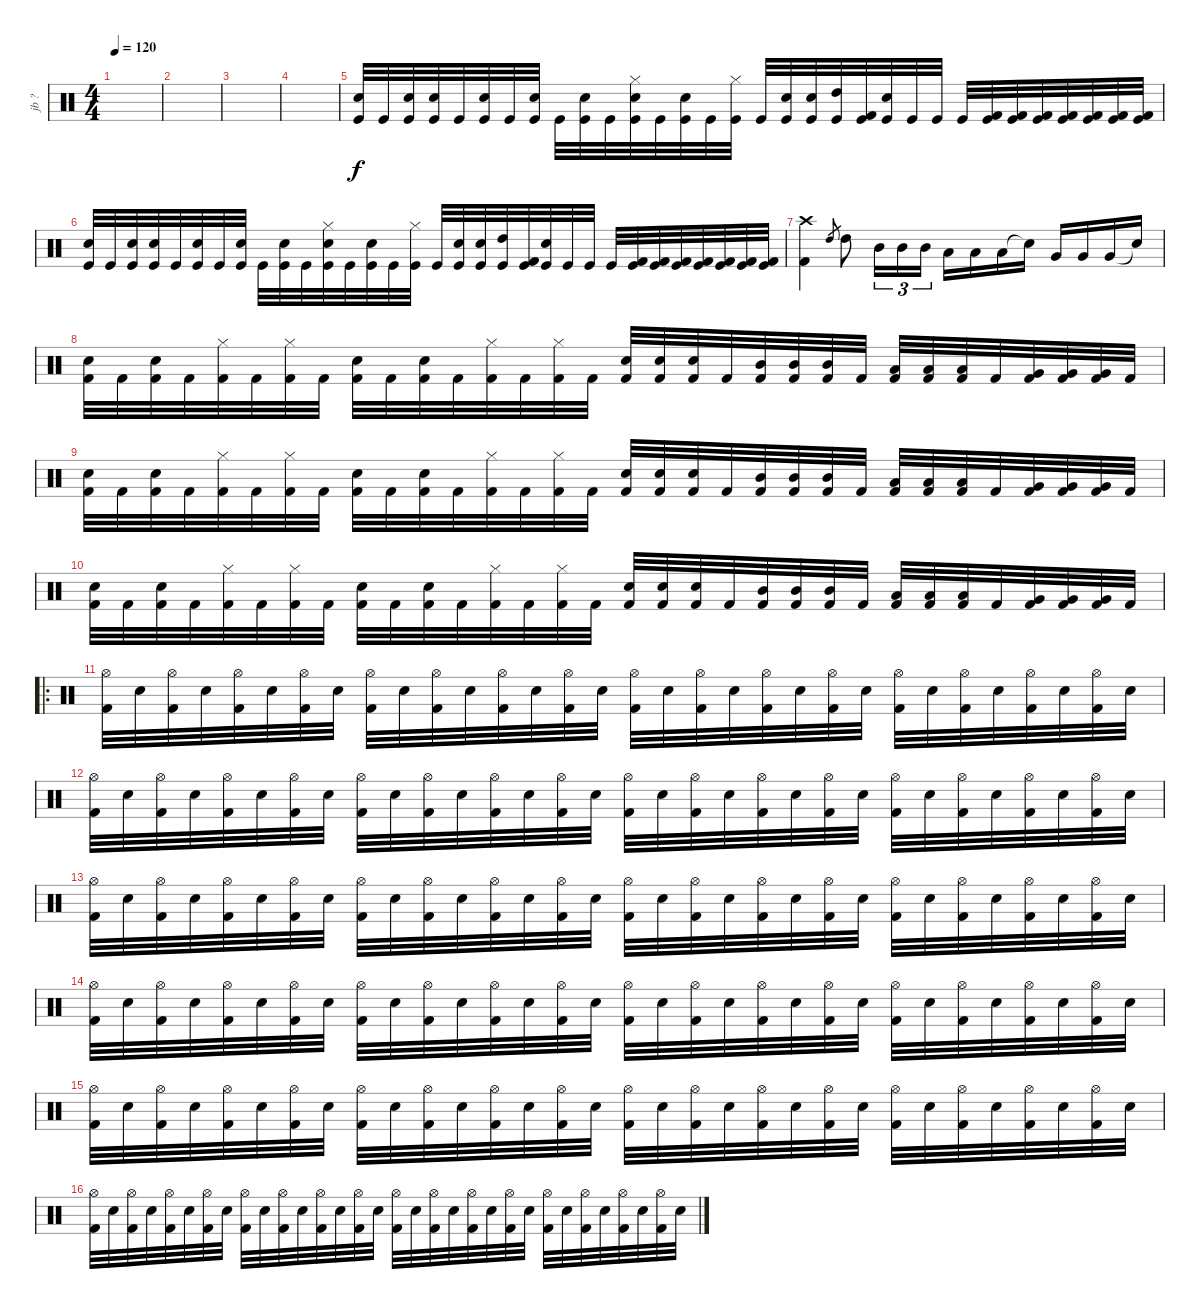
\track ("jb ?" "jb ?") {instrument percussion}
\staff {score}
\articulation defaults
\ts (4 4)
\tempo 120
\clef neutral
\ks c
|
|
|
|
("Electric Snare (hit)" "Kick (hit)").32 "Kick (hit)".32 ("Snare (hit) 2" "Kick (hit)").32 ("Snare (hit) 2" "Kick (hit)").32 "Kick (hit)".32 ("Electric Snare (hit)" "Kick (hit)").32 "Kick (hit)".32 ("Snare (hit) 2" "Kick (hit)").32 "Kick (hit)".32 ("Electric Snare (hit)" "Kick (hit)").32 "Kick (hit)".32 ("Snare (hit) 2" "Hi-Hat (closed)" "Kick (hit)").32 "Kick (hit)".32 ("Electric Snare (hit)" "Kick (hit)").32 "Kick (hit)".32 ("Hi-Hat (closed)" "Kick (hit)").32 "Kick (hit)".32 ("Electric Snare (hit)" "Kick (hit)").32 ("Electric Snare (hit)" "Kick (hit)").32 ("High Tom (hit)" "Kick (hit)").32 ("Kick (hit) 2" "Kick (hit)").32 ("Electric Snare (hit)" "Kick (hit)").32 "Kick (hit)".32 "Kick (hit)".32 "Kick (hit)".32 ("Kick (hit) 2" "Kick (hit)").32 ("Kick (hit) 2" "Kick (hit)").32 ("Kick (hit) 2" "Kick (hit)").32 ("Kick (hit) 2" "Kick (hit)").32 ("Kick (hit) 2" "Kick (hit)").32 ("Kick (hit) 2" "Kick (hit)").32 ("Kick (hit) 2" "Kick (hit)").32 |
("Electric Snare (hit)" "Kick (hit)").32 "Kick (hit)".32 ("Snare (hit) 2" "Kick (hit)").32 ("Snare (hit) 2" "Kick (hit)").32 "Kick (hit)".32 ("Electric Snare (hit)" "Kick (hit)").32 "Kick (hit)".32 ("Snare (hit) 2" "Kick (hit)").32 "Kick (hit)".32 ("Electric Snare (hit)" "Kick (hit)").32 "Kick (hit)".32 ("Snare (hit) 2" "Hi-Hat (closed)" "Kick (hit)").32 "Kick (hit)".32 ("Electric Snare (hit)" "Kick (hit)").32 "Kick (hit)".32 ("Hi-Hat (closed)" "Kick (hit)").32 "Kick (hit)".32 ("Electric Snare (hit)" "Kick (hit)").32 ("Electric Snare (hit)" "Kick (hit)").32 ("High Tom (hit)" "Kick (hit)").32 ("Kick (hit) 2" "Kick (hit)").32 ("Electric Snare (hit)" "Kick (hit)").32 "Kick (hit)".32 "Kick (hit)".32 "Kick (hit)".32 ("Kick (hit) 2" "Kick (hit)").32 ("Kick (hit) 2" "Kick (hit)").32 ("Kick (hit) 2" "Kick (hit)").32 ("Kick (hit) 2" "Kick (hit)").32 ("Kick (hit) 2" "Kick (hit)").32 ("Kick (hit) 2" "Kick (hit)").32 ("Kick (hit) 2" "Kick (hit)").32 |
("Crash high (hit)" "Kick (hit) 2").4 "High Tom (hit)".8{gr} "High Tom (hit)".8 "Mid Tom (hit)".16{tu (3 2)} "Mid Tom (hit)".16{tu (3 2)} "Mid Tom (hit)".16{tu (3 2)} "Low Tom (hit)".16 "Low Tom (hit)".16 "Low Tom (hit)".16 "Snare (hit)"{t}.16 "Very Low Tom (hit)".16 "Very Low Tom (hit)".16 "Very Low Tom (hit)".16 "Snare (hit)"{t}.16 |
("Snare (hit) 2" "Kick (hit) 2").32 "Kick (hit) 2".32 ("Snare (hit) 2" "Kick (hit) 2").32 "Kick (hit) 2".32 ("Hi-Hat (closed)" "Kick (hit) 2").32 "Kick (hit) 2".32 ("Hi-Hat (closed)" "Kick (hit) 2").32 "Kick (hit) 2".32 ("Snare (hit) 2" "Kick (hit) 2").32 "Kick (hit) 2".32 ("Snare (hit) 2" "Kick (hit) 2").32 "Kick (hit) 2".32 ("Hi-Hat (closed)" "Kick (hit) 2").32 "Kick (hit) 2".32 ("Hi-Hat (closed)" "Kick (hit) 2").32 "Kick (hit) 2".32 ("Snare (hit) 2" "Kick (hit) 2").32 ("Snare (hit) 2" "Kick (hit) 2").32 ("Snare (hit) 2" "Kick (hit) 2").32 "Kick (hit) 2".32 ("Mid Tom (hit)" "Kick (hit) 2").32 ("Mid Tom (hit)" "Kick (hit) 2").32 ("Mid Tom (hit)" "Kick (hit) 2").32 "Kick (hit) 2".32 ("Low Tom (hit)" "Kick (hit) 2").32 ("Low Tom (hit)" "Kick (hit) 2").32 ("Low Tom (hit)" "Kick (hit) 2").32 "Kick (hit) 2".32 ("Very Low Tom (hit)" "Kick (hit) 2").32 ("Very Low Tom (hit)" "Kick (hit) 2").32 ("Very Low Tom (hit)" "Kick (hit) 2").32 "Kick (hit) 2".32 |
("Snare (hit) 2" "Kick (hit) 2").32 "Kick (hit) 2".32 ("Snare (hit) 2" "Kick (hit) 2").32 "Kick (hit) 2".32 ("Hi-Hat (closed)" "Kick (hit) 2").32 "Kick (hit) 2".32 ("Hi-Hat (closed)" "Kick (hit) 2").32 "Kick (hit) 2".32 ("Snare (hit) 2" "Kick (hit) 2").32 "Kick (hit) 2".32 ("Snare (hit) 2" "Kick (hit) 2").32 "Kick (hit) 2".32 ("Hi-Hat (closed)" "Kick (hit) 2").32 "Kick (hit) 2".32 ("Hi-Hat (closed)" "Kick (hit) 2").32 "Kick (hit) 2".32 ("Snare (hit) 2" "Kick (hit) 2").32 ("Snare (hit) 2" "Kick (hit) 2").32 ("Snare (hit) 2" "Kick (hit) 2").32 "Kick (hit) 2".32 ("Mid Tom (hit)" "Kick (hit) 2").32 ("Mid Tom (hit)" "Kick (hit) 2").32 ("Mid Tom (hit)" "Kick (hit) 2").32 "Kick (hit) 2".32 ("Low Tom (hit)" "Kick (hit) 2").32 ("Low Tom (hit)" "Kick (hit) 2").32 ("Low Tom (hit)" "Kick (hit) 2").32 "Kick (hit) 2".32 ("Very Low Tom (hit)" "Kick (hit) 2").32 ("Very Low Tom (hit)" "Kick (hit) 2").32 ("Very Low Tom (hit)" "Kick (hit) 2").32 "Kick (hit) 2".32 |
("Snare (hit) 2" "Kick (hit) 2").32 "Kick (hit) 2".32 ("Snare (hit) 2" "Kick (hit) 2").32 "Kick (hit) 2".32 ("Hi-Hat (closed)" "Kick (hit) 2").32 "Kick (hit) 2".32 ("Hi-Hat (closed)" "Kick (hit) 2").32 "Kick (hit) 2".32 ("Snare (hit) 2" "Kick (hit) 2").32 "Kick (hit) 2".32 ("Snare (hit) 2" "Kick (hit) 2").32 "Kick (hit) 2".32 ("Hi-Hat (closed)" "Kick (hit) 2").32 "Kick (hit) 2".32 ("Hi-Hat (closed)" "Kick (hit) 2").32 "Kick (hit) 2".32 ("Snare (hit) 2" "Kick (hit) 2").32 ("Snare (hit) 2" "Kick (hit) 2").32 ("Snare (hit) 2" "Kick (hit) 2").32 "Kick (hit) 2".32 ("Mid Tom (hit)" "Kick (hit) 2").32 ("Mid Tom (hit)" "Kick (hit) 2").32 ("Mid Tom (hit)" "Kick (hit) 2").32 "Kick (hit) 2".32 ("Low Tom (hit)" "Kick (hit) 2").32 ("Low Tom (hit)" "Kick (hit) 2").32 ("Low Tom (hit)" "Kick (hit) 2").32 "Kick (hit) 2".32 ("Very Low Tom (hit)" "Kick (hit) 2").32 ("Very Low Tom (hit)" "Kick (hit) 2").32 ("Very Low Tom (hit)" "Kick (hit) 2").32 "Kick (hit) 2".32 |
\ro
("Kick (hit) 2" "Hi-Hat (open)").32 "Electric Snare (hit)".32 ("Kick (hit) 2" "Hi-Hat (open)").32 "Electric Snare (hit)".32 ("Kick (hit) 2" "Hi-Hat (open)").32 "Electric Snare (hit)".32 ("Kick (hit) 2" "Hi-Hat (open)").32 "Electric Snare (hit)".32 ("Kick (hit) 2" "Hi-Hat (open)").32 "Electric Snare (hit)".32 ("Kick (hit) 2" "Hi-Hat (open)").32 "Electric Snare (hit)".32 ("Kick (hit) 2" "Hi-Hat (open)").32 "Electric Snare (hit)".32 ("Kick (hit) 2" "Hi-Hat (open)").32 "Electric Snare (hit)".32 ("Kick (hit) 2" "Hi-Hat (open)").32 "Electric Snare (hit)".32 ("Kick (hit) 2" "Hi-Hat (open)").32 "Electric Snare (hit)".32 ("Kick (hit) 2" "Hi-Hat (open)").32 "Electric Snare (hit)".32 ("Kick (hit) 2" "Hi-Hat (open)").32 "Electric Snare (hit)".32 ("Kick (hit) 2" "Hi-Hat (open)").32 "Electric Snare (hit)".32 ("Kick (hit) 2" "Hi-Hat (open)").32 "Electric Snare (hit)".32 ("Kick (hit) 2" "Hi-Hat (open)").32 "Electric Snare (hit)".32 ("Kick (hit) 2" "Hi-Hat (open)").32 "Electric Snare (hit)".32 |
("Kick (hit) 2" "Hi-Hat (open)").32 "Electric Snare (hit)".32 ("Kick (hit) 2" "Hi-Hat (open)").32 "Electric Snare (hit)".32 ("Kick (hit) 2" "Hi-Hat (open)").32 "Electric Snare (hit)".32 ("Kick (hit) 2" "Hi-Hat (open)").32 "Electric Snare (hit)".32 ("Kick (hit) 2" "Hi-Hat (open)").32 "Electric Snare (hit)".32 ("Kick (hit) 2" "Hi-Hat (open)").32 "Electric Snare (hit)".32 ("Kick (hit) 2" "Hi-Hat (open)").32 "Electric Snare (hit)".32 ("Kick (hit) 2" "Hi-Hat (open)").32 "Electric Snare (hit)".32 ("Kick (hit) 2" "Hi-Hat (open)").32 "Electric Snare (hit)".32 ("Kick (hit) 2" "Hi-Hat (open)").32 "Electric Snare (hit)".32 ("Kick (hit) 2" "Hi-Hat (open)").32 "Electric Snare (hit)".32 ("Kick (hit) 2" "Hi-Hat (open)").32 "Electric Snare (hit)".32 ("Kick (hit) 2" "Hi-Hat (open)").32 "Electric Snare (hit)".32 ("Kick (hit) 2" "Hi-Hat (open)").32 "Electric Snare (hit)".32 ("Kick (hit) 2" "Hi-Hat (open)").32 "Electric Snare (hit)".32 ("Kick (hit) 2" "Hi-Hat (open)").32 "Electric Snare (hit)".32 |
("Kick (hit) 2" "Hi-Hat (open)").32 "Electric Snare (hit)".32 ("Kick (hit) 2" "Hi-Hat (open)").32 "Electric Snare (hit)".32 ("Kick (hit) 2" "Hi-Hat (open)").32 "Electric Snare (hit)".32 ("Kick (hit) 2" "Hi-Hat (open)").32 "Electric Snare (hit)".32 ("Kick (hit) 2" "Hi-Hat (open)").32 "Electric Snare (hit)".32 ("Kick (hit) 2" "Hi-Hat (open)").32 "Electric Snare (hit)".32 ("Kick (hit) 2" "Hi-Hat (open)").32 "Electric Snare (hit)".32 ("Kick (hit) 2" "Hi-Hat (open)").32 "Electric Snare (hit)".32 ("Kick (hit) 2" "Hi-Hat (open)").32 "Electric Snare (hit)".32 ("Kick (hit) 2" "Hi-Hat (open)").32 "Electric Snare (hit)".32 ("Kick (hit) 2" "Hi-Hat (open)").32 "Electric Snare (hit)".32 ("Kick (hit) 2" "Hi-Hat (open)").32 "Electric Snare (hit)".32 ("Kick (hit) 2" "Hi-Hat (open)").32 "Electric Snare (hit)".32 ("Kick (hit) 2" "Hi-Hat (open)").32 "Electric Snare (hit)".32 ("Kick (hit) 2" "Hi-Hat (open)").32 "Electric Snare (hit)".32 ("Kick (hit) 2" "Hi-Hat (open)").32 "Electric Snare (hit)".32 |
("Kick (hit) 2" "Hi-Hat (open)").32 "Electric Snare (hit)".32 ("Kick (hit) 2" "Hi-Hat (open)").32 "Electric Snare (hit)".32 ("Kick (hit) 2" "Hi-Hat (open)").32 "Electric Snare (hit)".32 ("Kick (hit) 2" "Hi-Hat (open)").32 "Electric Snare (hit)".32 ("Kick (hit) 2" "Hi-Hat (open)").32 "Electric Snare (hit)".32 ("Kick (hit) 2" "Hi-Hat (open)").32 "Electric Snare (hit)".32 ("Kick (hit) 2" "Hi-Hat (open)").32 "Electric Snare (hit)".32 ("Kick (hit) 2" "Hi-Hat (open)").32 "Electric Snare (hit)".32 ("Kick (hit) 2" "Hi-Hat (open)").32 "Electric Snare (hit)".32 ("Kick (hit) 2" "Hi-Hat (open)").32 "Electric Snare (hit)".32 ("Kick (hit) 2" "Hi-Hat (open)").32 "Electric Snare (hit)".32 ("Kick (hit) 2" "Hi-Hat (open)").32 "Electric Snare (hit)".32 ("Kick (hit) 2" "Hi-Hat (open)").32 "Electric Snare (hit)".32 ("Kick (hit) 2" "Hi-Hat (open)").32 "Electric Snare (hit)".32 ("Kick (hit) 2" "Hi-Hat (open)").32 "Electric Snare (hit)".32 ("Kick (hit) 2" "Hi-Hat (open)").32 "Electric Snare (hit)".32 |
("Kick (hit) 2" "Hi-Hat (open)").32 "Electric Snare (hit)".32 ("Kick (hit) 2" "Hi-Hat (open)").32 "Electric Snare (hit)".32 ("Kick (hit) 2" "Hi-Hat (open)").32 "Electric Snare (hit)".32 ("Kick (hit) 2" "Hi-Hat (open)").32 "Electric Snare (hit)".32 ("Kick (hit) 2" "Hi-Hat (open)").32 "Electric Snare (hit)".32 ("Kick (hit) 2" "Hi-Hat (open)").32 "Electric Snare (hit)".32 ("Kick (hit) 2" "Hi-Hat (open)").32 "Electric Snare (hit)".32 ("Kick (hit) 2" "Hi-Hat (open)").32 "Electric Snare (hit)".32 ("Kick (hit) 2" "Hi-Hat (open)").32 "Electric Snare (hit)".32 ("Kick (hit) 2" "Hi-Hat (open)").32 "Electric Snare (hit)".32 ("Kick (hit) 2" "Hi-Hat (open)").32 "Electric Snare (hit)".32 ("Kick (hit) 2" "Hi-Hat (open)").32 "Electric Snare (hit)".32 ("Kick (hit) 2" "Hi-Hat (open)").32 "Electric Snare (hit)".32 ("Kick (hit) 2" "Hi-Hat (open)").32 "Electric Snare (hit)".32 ("Kick (hit) 2" "Hi-Hat (open)").32 "Electric Snare (hit)".32 ("Kick (hit) 2" "Hi-Hat (open)").32 "Electric Snare (hit)".32 |
("Kick (hit) 2" "Hi-Hat (open)").32 "Electric Snare (hit)".32 ("Kick (hit) 2" "Hi-Hat (open)").32 "Electric Snare (hit)".32 ("Kick (hit) 2" "Hi-Hat (open)").32 "Electric Snare (hit)".32 ("Kick (hit) 2" "Hi-Hat (open)").32 "Electric Snare (hit)".32 ("Kick (hit) 2" "Hi-Hat (open)").32 "Electric Snare (hit)".32 ("Kick (hit) 2" "Hi-Hat (open)").32 "Electric Snare (hit)".32 ("Kick (hit) 2" "Hi-Hat (open)").32 "Electric Snare (hit)".32 ("Kick (hit) 2" "Hi-Hat (open)").32 "Electric Snare (hit)".32 ("Kick (hit) 2" "Hi-Hat (open)").32 "Electric Snare (hit)".32 ("Kick (hit) 2" "Hi-Hat (open)").32 "Electric Snare (hit)".32 ("Kick (hit) 2" "Hi-Hat (open)").32 "Electric Snare (hit)".32 ("Kick (hit) 2" "Hi-Hat (open)").32 "Electric Snare (hit)".32 ("Kick (hit) 2" "Hi-Hat (open)").32 "Electric Snare (hit)".32 ("Kick (hit) 2" "Hi-Hat (open)").32 "Electric Snare (hit)".32 ("Kick (hit) 2" "Hi-Hat (open)").32 "Electric Snare (hit)".32 ("Kick (hit) 2" "Hi-Hat (open)").32 "Electric Snare (hit)".32
